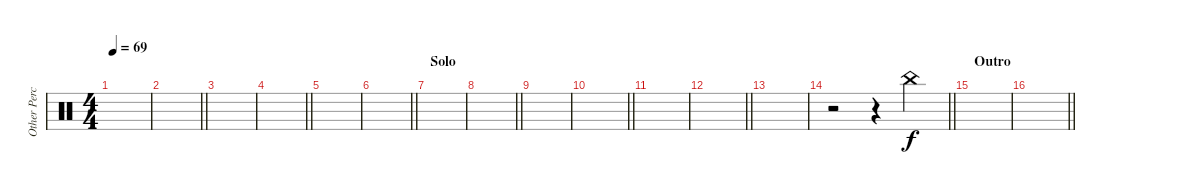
\track ("Other Percussion" "Other Perc") {instrument percussion}
\staff {score}
\articulation defaults
\ts (4 4)
\tempo 69
\clef neutral
\ks aminor
|
\barLineRight lightlight
|
|
\barLineRight lightlight
|
|
\barLineRight lightlight
|
\section ("" "Solo")
|
\barLineRight lightlight
|
|
\barLineRight lightlight
|
|
\barLineRight lightlight
|
|
\barLineRight lightlight
r.2 r.4 "China (hit)".4 |
\section ("" "Outro")
|
\barLineRight lightlight
